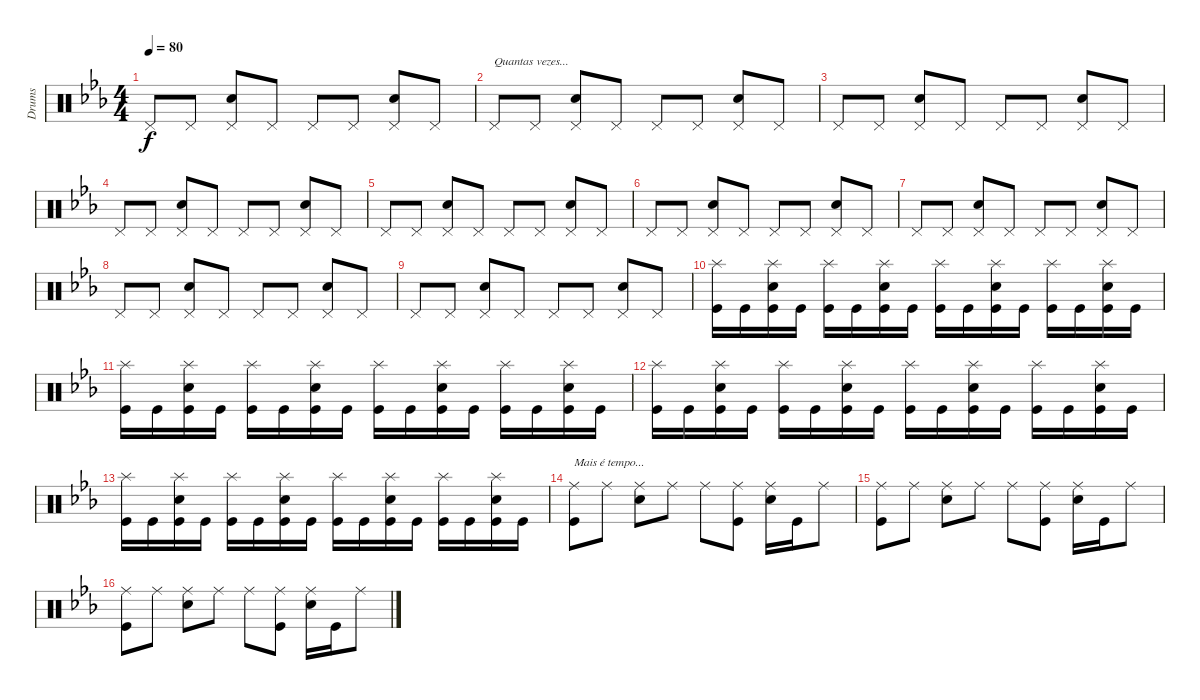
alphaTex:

\track ("Drums" "Drums") {instrument percussion}
\staff {score}
\articulation defaults
\ts (4 4)
\tempo 80
\clef neutral
\ks eb "Pedal Hi-Hat (hit)".8{dy f} "Pedal Hi-Hat (hit)".8
("Pedal Hi-Hat (hit)" "Electric Snare (hit)").8 "Pedal Hi-Hat (hit)".8 "Pedal Hi-Hat (hit)".8 "Pedal Hi-Hat (hit)".8 ("Pedal Hi-Hat (hit)" "Electric Snare (hit)").8 "Pedal Hi-Hat (hit)".8 |
"Pedal Hi-Hat (hit)".8{txt "Quantas vezes..."} "Pedal Hi-Hat (hit)".8 ("Pedal Hi-Hat (hit)" "Electric Snare (hit)").8 "Pedal Hi-Hat (hit)".8 "Pedal Hi-Hat (hit)".8 "Pedal Hi-Hat (hit)".8 ("Pedal Hi-Hat (hit)" "Electric Snare (hit)").8 "Pedal Hi-Hat (hit)".8 |
"Pedal Hi-Hat (hit)".8 "Pedal Hi-Hat (hit)".8 ("Pedal Hi-Hat (hit)" "Electric Snare (hit)").8 "Pedal Hi-Hat (hit)".8 "Pedal Hi-Hat (hit)".8 "Pedal Hi-Hat (hit)".8 ("Pedal Hi-Hat (hit)" "Electric Snare (hit)").8 "Pedal Hi-Hat (hit)".8 |
"Pedal Hi-Hat (hit)".8 "Pedal Hi-Hat (hit)".8 ("Pedal Hi-Hat (hit)" "Electric Snare (hit)").8 "Pedal Hi-Hat (hit)".8 "Pedal Hi-Hat (hit)".8 "Pedal Hi-Hat (hit)".8 ("Pedal Hi-Hat (hit)" "Electric Snare (hit)").8 "Pedal Hi-Hat (hit)".8 |
"Pedal Hi-Hat (hit)".8 "Pedal Hi-Hat (hit)".8 ("Pedal Hi-Hat (hit)" "Electric Snare (hit)").8 "Pedal Hi-Hat (hit)".8 "Pedal Hi-Hat (hit)".8 "Pedal Hi-Hat (hit)".8 ("Pedal Hi-Hat (hit)" "Electric Snare (hit)").8 "Pedal Hi-Hat (hit)".8 |
"Pedal Hi-Hat (hit)".8 "Pedal Hi-Hat (hit)".8 ("Pedal Hi-Hat (hit)" "Electric Snare (hit)").8 "Pedal Hi-Hat (hit)".8 "Pedal Hi-Hat (hit)".8 "Pedal Hi-Hat (hit)".8 ("Pedal Hi-Hat (hit)" "Electric Snare (hit)").8 "Pedal Hi-Hat (hit)".8 |
"Pedal Hi-Hat (hit)".8 "Pedal Hi-Hat (hit)".8 ("Pedal Hi-Hat (hit)" "Electric Snare (hit)").8 "Pedal Hi-Hat (hit)".8 "Pedal Hi-Hat (hit)".8 "Pedal Hi-Hat (hit)".8 ("Pedal Hi-Hat (hit)" "Electric Snare (hit)").8 "Pedal Hi-Hat (hit)".8 |
"Pedal Hi-Hat (hit)".8 "Pedal Hi-Hat (hit)".8 ("Pedal Hi-Hat (hit)" "Electric Snare (hit)").8 "Pedal Hi-Hat (hit)".8 "Pedal Hi-Hat (hit)".8 "Pedal Hi-Hat (hit)".8 ("Pedal Hi-Hat (hit)" "Electric Snare (hit)").8 "Pedal Hi-Hat (hit)".8 |
"Pedal Hi-Hat (hit)".8 "Pedal Hi-Hat (hit)".8 ("Pedal Hi-Hat (hit)" "Electric Snare (hit)").8 "Pedal Hi-Hat (hit)".8 "Pedal Hi-Hat (hit)".8 "Pedal Hi-Hat (hit)".8 ("Pedal Hi-Hat (hit)" "Electric Snare (hit)").8 "Pedal Hi-Hat (hit)".8 |
("Splash (hit)" "Kick (hit)").16 "Kick (hit)".16 ("Splash (hit)" "Electric Snare (hit)" "Kick (hit)").16 "Kick (hit)".16 ("Splash (hit)" "Kick (hit)").16 "Kick (hit)".16 ("Splash (hit)" "Electric Snare (hit)" "Kick (hit)").16 "Kick (hit)".16 ("Splash (hit)" "Kick (hit)").16 "Kick (hit)".16 ("Splash (hit)" "Electric Snare (hit)" "Kick (hit)").16 "Kick (hit)".16 ("Splash (hit)" "Kick (hit)").16 "Kick (hit)".16 ("Splash (hit)" "Electric Snare (hit)" "Kick (hit)").16 "Kick (hit)".16 |
("Splash (hit)" "Kick (hit)").16 "Kick (hit)".16 ("Splash (hit)" "Electric Snare (hit)" "Kick (hit)").16 "Kick (hit)".16 ("Splash (hit)" "Kick (hit)").16 "Kick (hit)".16 ("Splash (hit)" "Electric Snare (hit)" "Kick (hit)").16 "Kick (hit)".16 ("Splash (hit)" "Kick (hit)").16 "Kick (hit)".16 ("Splash (hit)" "Electric Snare (hit)" "Kick (hit)").16 "Kick (hit)".16 ("Splash (hit)" "Kick (hit)").16 "Kick (hit)".16 ("Splash (hit)" "Electric Snare (hit)" "Kick (hit)").16 "Kick (hit)".16 |
("Splash (hit)" "Kick (hit)").16 "Kick (hit)".16 ("Splash (hit)" "Electric Snare (hit)" "Kick (hit)").16 "Kick (hit)".16 ("Splash (hit)" "Kick (hit)").16 "Kick (hit)".16 ("Splash (hit)" "Electric Snare (hit)" "Kick (hit)").16 "Kick (hit)".16 ("Splash (hit)" "Kick (hit)").16 "Kick (hit)".16 ("Splash (hit)" "Electric Snare (hit)" "Kick (hit)").16 "Kick (hit)".16 ("Splash (hit)" "Kick (hit)").16 "Kick (hit)".16 ("Splash (hit)" "Electric Snare (hit)" "Kick (hit)").16 "Kick (hit)".16 |
("Splash (hit)" "Kick (hit)").16 "Kick (hit)".16 ("Splash (hit)" "Electric Snare (hit)" "Kick (hit)").16 "Kick (hit)".16 ("Splash (hit)" "Kick (hit)").16 "Kick (hit)".16 ("Splash (hit)" "Electric Snare (hit)" "Kick (hit)").16 "Kick (hit)".16 ("Splash (hit)" "Kick (hit)").16 "Kick (hit)".16 ("Splash (hit)" "Electric Snare (hit)" "Kick (hit)").16 "Kick (hit)".16 ("Splash (hit)" "Kick (hit)").16 "Kick (hit)".16 ("Splash (hit)" "Electric Snare (hit)" "Kick (hit)").16 "Kick (hit)".16 |
("Ride (middle)" "Kick (hit)").8{txt "Mais é tempo..."} "Ride (middle)".8 ("Ride (middle)" "Electric Snare (hit)").8 "Ride (middle)".8 "Ride (middle)".8 ("Ride (middle)" "Kick (hit)").8 ("Ride (middle)" "Electric Snare (hit)").16 "Kick (hit)".16 "Ride (middle)".8 |
("Ride (middle)" "Kick (hit)").8 "Ride (middle)".8 ("Ride (middle)" "Electric Snare (hit)").8 "Ride (middle)".8 "Ride (middle)".8 ("Ride (middle)" "Kick (hit)").8 ("Ride (middle)" "Electric Snare (hit)").16 "Kick (hit)".16 "Ride (middle)".8 |
("Ride (middle)" "Kick (hit)").8 "Ride (middle)".8 ("Ride (middle)" "Electric Snare (hit)").8 "Ride (middle)".8 "Ride (middle)".8 ("Ride (middle)" "Kick (hit)").8 ("Ride (middle)" "Electric Snare (hit)").16 "Kick (hit)".16 "Ride (middle)".8
